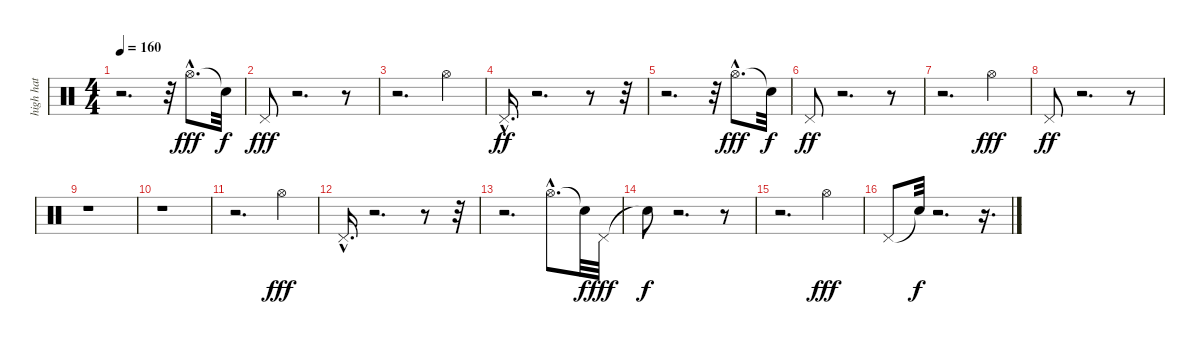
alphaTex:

\track ("high hat" "high hat") {instrument percussion}
\staff {score}
\articulation defaults
\ts (4 4)
\tempo 160
\clef neutral
\ks c
r.2{d dy f} r.32 "Hi-Hat (open)"{hac}.8{d dy fff} "Snare (hit)"{t}.32{dy f} |
"Pedal Hi-Hat (hit)".8{dy fff} r.2{d} r.8 |
r.2{d} "Hi-Hat (open)".4 |
"Pedal Hi-Hat (hit)"{hac}.16{d dy ff} r.2{d} r.8 r.32 |
r.2{d} r.32 "Hi-Hat (open)"{hac}.8{d dy fff} "Snare (hit)"{t}.32{dy f} |
"Pedal Hi-Hat (hit)".8{dy ff} r.2{d} r.8 |
r.2{d} "Hi-Hat (open)".4{dy fff} |
"Pedal Hi-Hat (hit)".8{dy ff} r.2{d} r.8 |
r.1 |
r.1 |
r.2{d} "Hi-Hat (open)".4{dy fff} |
"Pedal Hi-Hat (hit)"{hac}.16{d} r.2{d} r.8 r.32 |
r.2{d} "Hi-Hat (open)"{hac}.8{d} "Snare (hit)"{t}.32{dy f} "Pedal Hi-Hat (hit)".32{dy fff} |
"Snare (hit)"{t}.8{dy f} r.2{d} r.8 |
r.2{d} "Hi-Hat (open)".4{dy fff} |
"Pedal Hi-Hat (hit)".8 "Snare (hit)"{t}.32{dy f} r.2{d} r.16{d}
